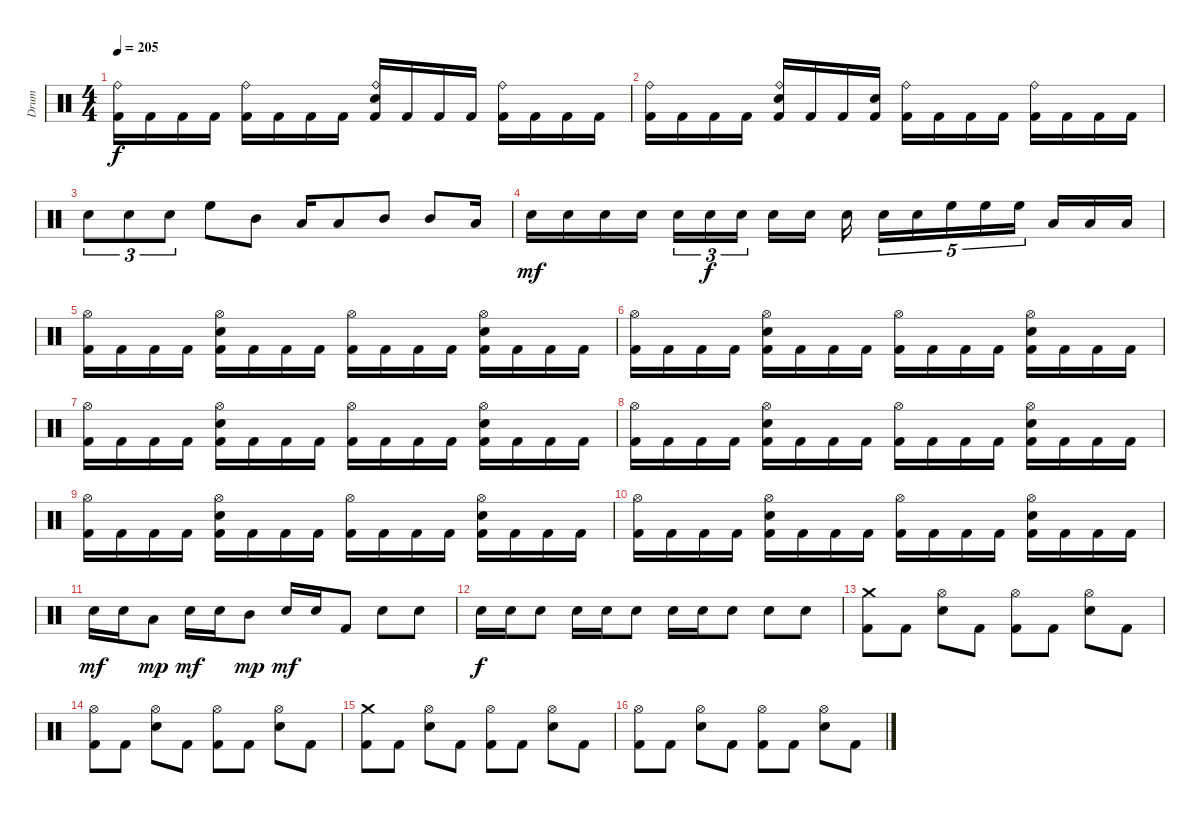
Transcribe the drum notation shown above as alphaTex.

\track ("Drum" "Drum") {instrument percussion}
\staff {score}
\articulation defaults
\ts (4 4)
\tempo 205
\clef neutral
\ks c
("Kick (hit) 2" "Ride (bell)").16{dy f} "Kick (hit) 2".16 "Kick (hit) 2".16 "Kick (hit) 2".16 ("Kick (hit) 2" "Ride (bell)").16 "Kick (hit) 2".16 "Kick (hit) 2".16 "Kick (hit) 2".16 ("Kick (hit) 2" "Electric Snare (hit)" "Ride (bell)").16 "Kick (hit) 2".16 "Kick (hit) 2".16 "Kick (hit) 2".16 ("Kick (hit) 2" "Ride (bell)").16 "Kick (hit) 2".16 "Kick (hit) 2".16 "Kick (hit) 2".16 |
("Kick (hit) 2" "Ride (bell)").16 "Kick (hit) 2".16 "Kick (hit) 2".16 "Kick (hit) 2".16 ("Kick (hit) 2" "Electric Snare (hit)" "Ride (bell)").16 "Kick (hit) 2".16 "Kick (hit) 2".16 ("Kick (hit) 2" "Electric Snare (hit)").16 ("Kick (hit) 2" "Ride (bell)").16 "Kick (hit) 2".16 "Kick (hit) 2".16 "Kick (hit) 2".16 ("Kick (hit) 2" "Ride (bell)").16 "Kick (hit) 2".16 "Kick (hit) 2".16 "Kick (hit) 2".16 |
"Electric Snare (hit)".8{tu (3 2)} "Electric Snare (hit)".8{tu (3 2)} "Electric Snare (hit)".8{tu (3 2)} "High Floor Tom (hit)".8 "Mid Tom (hit)".8 "Low Tom (hit)".16 "Low Tom (hit)".8 "Mid Tom (hit)".8 "Mid Tom (hit)".8 "Low Tom (hit)".16 |
"Electric Snare (hit)".16{dy mf} "Electric Snare (hit)".16 "Electric Snare (hit)".16 "Electric Snare (hit)".16 "Electric Snare (hit)".16{tu (3 2)} "Electric Snare (hit)".16{tu (3 2) dy f} "Electric Snare (hit)".16{tu (3 2)} "Electric Snare (hit)".16 "Electric Snare (hit)".16 "Electric Snare (hit)".16 "Electric Snare (hit)".16{tu (5 4)} "Electric Snare (hit)".16{tu (5 4)} "High Floor Tom (hit)".16{tu (5 4)} "High Floor Tom (hit)".16{tu (5 4)} "High Floor Tom (hit)".16{tu (5 4)} "Low Tom (hit)".16 "Low Tom (hit)".16 "Low Tom (hit)".16 |
("Kick (hit) 2" "Hi-Hat (open)").16 "Kick (hit) 2".16 "Kick (hit) 2".16 "Kick (hit) 2".16 ("Kick (hit) 2" "Electric Snare (hit)" "Hi-Hat (open)").16 "Kick (hit) 2".16 "Kick (hit) 2".16 "Kick (hit) 2".16 ("Kick (hit) 2" "Hi-Hat (open)").16 "Kick (hit) 2".16 "Kick (hit) 2".16 "Kick (hit) 2".16 ("Kick (hit) 2" "Electric Snare (hit)" "Hi-Hat (open)").16 "Kick (hit) 2".16 "Kick (hit) 2".16 "Kick (hit) 2".16 |
("Kick (hit) 2" "Hi-Hat (open)").16 "Kick (hit) 2".16 "Kick (hit) 2".16 "Kick (hit) 2".16 ("Kick (hit) 2" "Electric Snare (hit)" "Hi-Hat (open)").16 "Kick (hit) 2".16 "Kick (hit) 2".16 "Kick (hit) 2".16 ("Kick (hit) 2" "Hi-Hat (open)").16 "Kick (hit) 2".16 "Kick (hit) 2".16 "Kick (hit) 2".16 ("Kick (hit) 2" "Electric Snare (hit)" "Hi-Hat (open)").16 "Kick (hit) 2".16 "Kick (hit) 2".16 "Kick (hit) 2".16 |
("Kick (hit) 2" "Hi-Hat (open)").16 "Kick (hit) 2".16 "Kick (hit) 2".16 "Kick (hit) 2".16 ("Kick (hit) 2" "Electric Snare (hit)" "Hi-Hat (open)").16 "Kick (hit) 2".16 "Kick (hit) 2".16 "Kick (hit) 2".16 ("Kick (hit) 2" "Hi-Hat (open)").16 "Kick (hit) 2".16 "Kick (hit) 2".16 "Kick (hit) 2".16 ("Kick (hit) 2" "Electric Snare (hit)" "Hi-Hat (open)").16 "Kick (hit) 2".16 "Kick (hit) 2".16 "Kick (hit) 2".16 |
("Kick (hit) 2" "Hi-Hat (open)").16 "Kick (hit) 2".16 "Kick (hit) 2".16 "Kick (hit) 2".16 ("Kick (hit) 2" "Electric Snare (hit)" "Hi-Hat (open)").16 "Kick (hit) 2".16 "Kick (hit) 2".16 "Kick (hit) 2".16 ("Kick (hit) 2" "Hi-Hat (open)").16 "Kick (hit) 2".16 "Kick (hit) 2".16 "Kick (hit) 2".16 ("Kick (hit) 2" "Electric Snare (hit)" "Hi-Hat (open)").16 "Kick (hit) 2".16 "Kick (hit) 2".16 "Kick (hit) 2".16 |
("Kick (hit) 2" "Hi-Hat (open)").16 "Kick (hit) 2".16 "Kick (hit) 2".16 "Kick (hit) 2".16 ("Kick (hit) 2" "Electric Snare (hit)" "Hi-Hat (open)").16 "Kick (hit) 2".16 "Kick (hit) 2".16 "Kick (hit) 2".16 ("Kick (hit) 2" "Hi-Hat (open)").16 "Kick (hit) 2".16 "Kick (hit) 2".16 "Kick (hit) 2".16 ("Kick (hit) 2" "Electric Snare (hit)" "Hi-Hat (open)").16 "Kick (hit) 2".16 "Kick (hit) 2".16 "Kick (hit) 2".16 |
("Kick (hit) 2" "Hi-Hat (open)").16 "Kick (hit) 2".16 "Kick (hit) 2".16 "Kick (hit) 2".16 ("Kick (hit) 2" "Electric Snare (hit)" "Hi-Hat (open)").16 "Kick (hit) 2".16 "Kick (hit) 2".16 "Kick (hit) 2".16 ("Kick (hit) 2" "Hi-Hat (open)").16 "Kick (hit) 2".16 "Kick (hit) 2".16 "Kick (hit) 2".16 ("Kick (hit) 2" "Electric Snare (hit)" "Hi-Hat (open)").16 "Kick (hit) 2".16 "Kick (hit) 2".16 "Kick (hit) 2".16 |
"Electric Snare (hit)".16{dy mf} "Electric Snare (hit)".16 "Low Tom (hit)".8{dy mp} "Electric Snare (hit)".16{dy mf} "Electric Snare (hit)".16 "Mid Tom (hit)".8{dy mp} "Electric Snare (hit)".16{dy mf} "Electric Snare (hit)".16 "Kick (hit) 2".8 "Electric Snare (hit)".8 "Electric Snare (hit)".8 |
"Electric Snare (hit)".16{dy f} "Electric Snare (hit)".16 "Electric Snare (hit)".8 "Electric Snare (hit)".16 "Electric Snare (hit)".16 "Electric Snare (hit)".8 "Electric Snare (hit)".16 "Electric Snare (hit)".16 "Electric Snare (hit)".8 "Electric Snare (hit)".8 "Electric Snare (hit)".8 |
("Kick (hit) 2" "Crash medium (hit)").8 "Kick (hit) 2".8 ("Electric Snare (hit)" "Hi-Hat (open)").8 "Kick (hit) 2".8 ("Kick (hit) 2" "Hi-Hat (open)").8 "Kick (hit) 2".8 ("Electric Snare (hit)" "Hi-Hat (open)").8 "Kick (hit) 2".8 |
("Kick (hit) 2" "Hi-Hat (open)").8 "Kick (hit) 2".8 ("Electric Snare (hit)" "Hi-Hat (open)").8 "Kick (hit) 2".8 ("Kick (hit) 2" "Hi-Hat (open)").8 "Kick (hit) 2".8 ("Electric Snare (hit)" "Hi-Hat (open)").8 "Kick (hit) 2".8 |
("Kick (hit) 2" "Crash medium (hit)").8 "Kick (hit) 2".8 ("Electric Snare (hit)" "Hi-Hat (open)").8 "Kick (hit) 2".8 ("Kick (hit) 2" "Hi-Hat (open)").8 "Kick (hit) 2".8 ("Electric Snare (hit)" "Hi-Hat (open)").8 "Kick (hit) 2".8 |
("Kick (hit) 2" "Hi-Hat (open)").8 "Kick (hit) 2".8 ("Electric Snare (hit)" "Hi-Hat (open)").8 "Kick (hit) 2".8 ("Kick (hit) 2" "Hi-Hat (open)").8 "Kick (hit) 2".8 ("Electric Snare (hit)" "Hi-Hat (open)").8 "Kick (hit) 2".8
